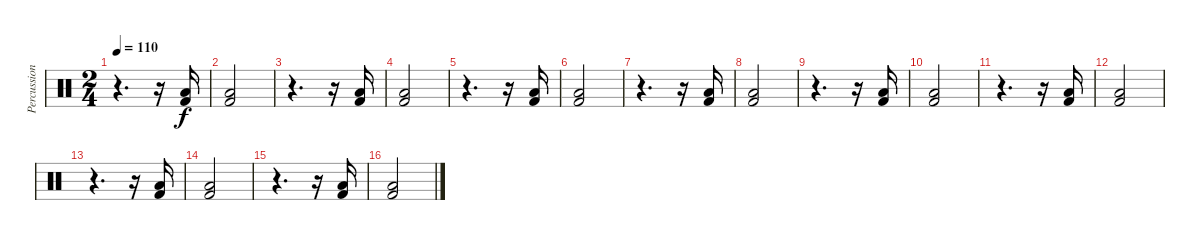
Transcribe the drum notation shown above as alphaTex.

\track ("Percussioni" "Percussion") {instrument percussion}
\staff {score}
\articulation defaults
\ts (2 4)
\tempo 110
\clef neutral
\ks c
r.4{d dy f} r.16 ("Low Floor Tom (hit)" "Kick (hit) 2").16 |
("Low Floor Tom (hit)" "Kick (hit) 2").2 |
r.4{d} r.16 ("Low Floor Tom (hit)" "Kick (hit) 2").16 |
("Low Floor Tom (hit)" "Kick (hit) 2").2 |
r.4{d} r.16 ("Low Floor Tom (hit)" "Kick (hit) 2").16 |
("Low Floor Tom (hit)" "Kick (hit) 2").2 |
r.4{d} r.16 ("Low Floor Tom (hit)" "Kick (hit) 2").16 |
("Low Floor Tom (hit)" "Kick (hit) 2").2 |
r.4{d} r.16 ("Low Floor Tom (hit)" "Kick (hit) 2").16 |
("Low Floor Tom (hit)" "Kick (hit) 2").2 |
r.4{d} r.16 ("Low Floor Tom (hit)" "Kick (hit) 2").16 |
("Low Floor Tom (hit)" "Kick (hit) 2").2 |
r.4{d} r.16 ("Low Floor Tom (hit)" "Kick (hit) 2").16 |
("Low Floor Tom (hit)" "Kick (hit) 2").2 |
r.4{d} r.16 ("Low Floor Tom (hit)" "Kick (hit) 2").16 |
("Low Floor Tom (hit)" "Kick (hit) 2").2
